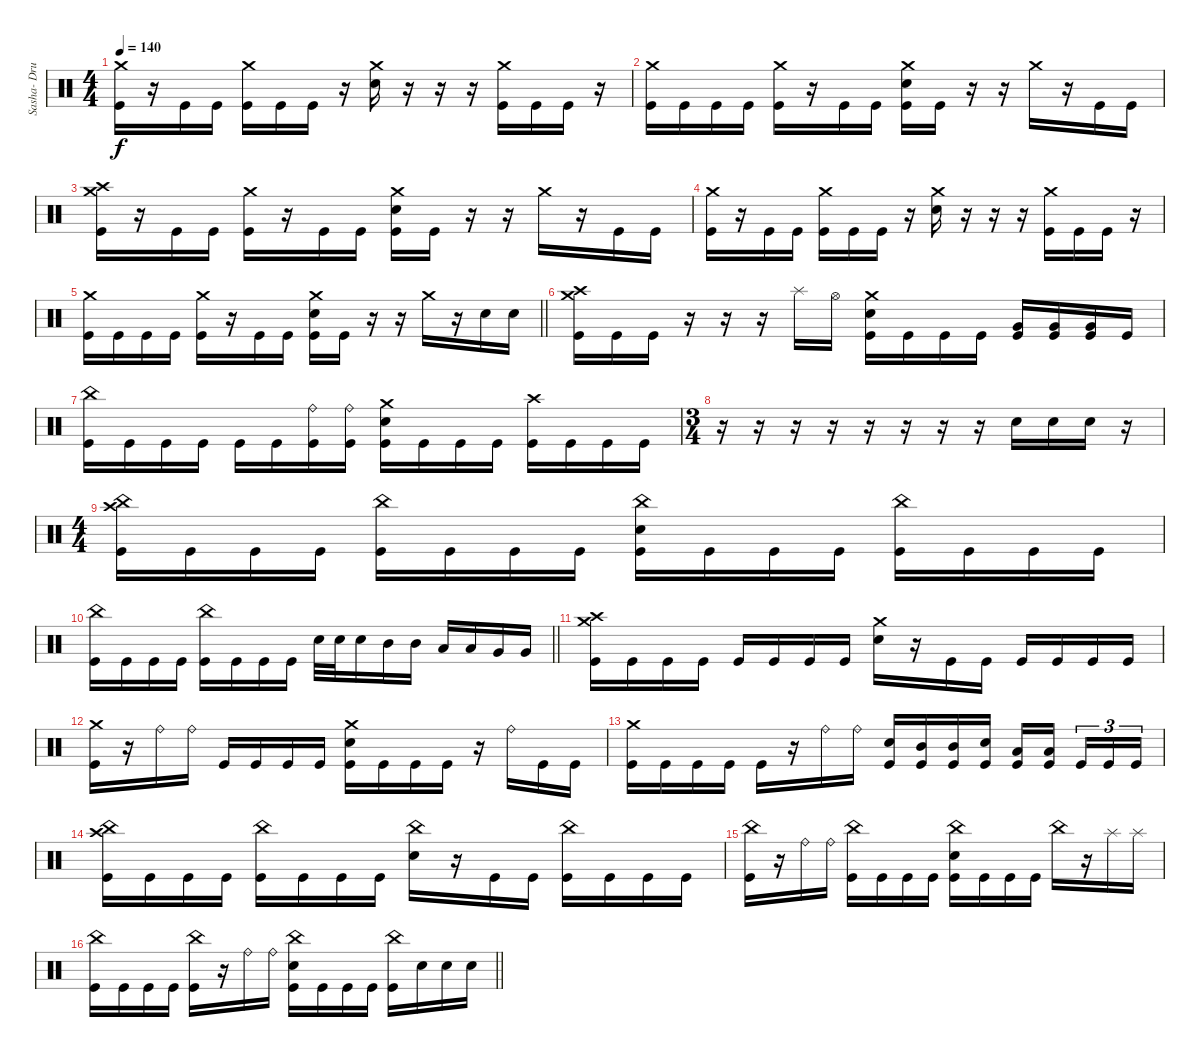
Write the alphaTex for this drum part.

\track ("Sasha- Drums" "Sasha- Dru") {instrument percussion}
\staff {score}
\articulation defaults
\ts (4 4)
\tempo 140
\clef neutral
\ks c
("Crash medium (hit)" "Kick (hit)").16{dy f} r.16 "Kick (hit)".16 "Kick (hit)".16 ("Kick (hit)" "Crash medium (hit)").16 "Kick (hit)".16 "Kick (hit)".16 r.16 ("Crash medium (hit)" "Snare (hit) 2").16 r.16 r.16 r.16 ("Kick (hit)" "Crash medium (hit)").16 "Kick (hit)".16 "Kick (hit)".16 r.16 |
("Kick (hit)" "Crash medium (hit)").16 "Kick (hit)".16 "Kick (hit)".16 "Kick (hit)".16 ("Kick (hit)" "Crash medium (hit)").16 r.16 "Kick (hit)".16 "Kick (hit)".16 ("Kick (hit)" "Crash medium (hit)" "Snare (hit) 2").16 "Kick (hit)".16 r.16 r.16 "Crash medium (hit)".16 r.16 "Kick (hit)".16 "Kick (hit)".16 |
("Kick (hit)" "Crash medium (hit)" "Crash high (hit)").16 r.16 "Kick (hit)".16 "Kick (hit)".16 ("Kick (hit)" "Crash medium (hit)").16 r.16 "Kick (hit)".16 "Kick (hit)".16 ("Kick (hit)" "Crash medium (hit)" "Snare (hit) 2").16 "Kick (hit)".16 r.16 r.16 "Crash medium (hit)".16 r.16 "Kick (hit)".16 "Kick (hit)".16 |
("Kick (hit)" "Crash medium (hit)").16 r.16 "Kick (hit)".16 "Kick (hit)".16 ("Kick (hit)" "Crash medium (hit)").16 "Kick (hit)".16 "Kick (hit)".16 r.16 ("Crash medium (hit)" "Snare (hit) 2").16 r.16 r.16 r.16 ("Kick (hit)" "Crash medium (hit)").16 "Kick (hit)".16 "Kick (hit)".16 r.16 |
\barLineRight lightlight
("Kick (hit)" "Crash medium (hit)").16 "Kick (hit)".16 "Kick (hit)".16 "Kick (hit)".16 ("Kick (hit)" "Crash medium (hit)").16 r.16 "Kick (hit)".16 "Kick (hit)".16 ("Kick (hit)" "Crash medium (hit)" "Snare (hit) 2").16 "Kick (hit)".16 r.16 r.16 "Crash medium (hit)".16 r.16 "Snare (hit) 2".16 "Snare (hit) 2".16 |
\section ("" "")
("Kick (hit)" "Crash high (hit)" "Crash medium (hit)").16 "Kick (hit)".16 "Kick (hit)".16 r.16 r.16 r.16 "Splash (hit)".16 "Hi-Hat (open)".16 ("Kick (hit)" "Crash medium (hit)" "Snare (hit) 2").16 "Kick (hit)".16 "Kick (hit)".16 "Kick (hit)".16 ("Very Low Tom (hit)" "Kick (hit)").16 ("Very Low Tom (hit)" "Kick (hit)").16 ("Very Low Tom (hit)" "Kick (hit)").16 "Kick (hit)".16 |
("Kick (hit)" "China (hit)").16 "Kick (hit)".16 "Kick (hit)".16 "Kick (hit)".16 "Kick (hit)".16 "Kick (hit)".16 ("Kick (hit)" "Ride (bell)").16 ("Kick (hit)" "Ride (bell)").16 ("Kick (hit)" "Crash medium (hit)" "Snare (hit) 2").16 "Kick (hit)".16 "Kick (hit)".16 "Kick (hit)".16 ("Kick (hit)" "Crash high (hit)").16 "Kick (hit)".16 "Kick (hit)".16 "Kick (hit)".16 |
\ts (3 4)
r.16 r.16 r.16 r.16 r.16 r.16 r.16 r.16 "Snare (hit) 2".16 "Snare (hit) 2".16 "Snare (hit) 2".16 r.16 |
\ts (4 4)
("Kick (hit)" "Crash high (hit)" "China (hit)").16 "Kick (hit)".16 "Kick (hit)".16 "Kick (hit)".16 ("Kick (hit)" "China (hit)").16 "Kick (hit)".16 "Kick (hit)".16 "Kick (hit)".16 ("Kick (hit)" "Snare (hit) 2" "China (hit)").16 "Kick (hit)".16 "Kick (hit)".16 "Kick (hit)".16 ("Kick (hit)" "China (hit)").16 "Kick (hit)".16 "Kick (hit)".16 "Kick (hit)".16 |
\barLineRight lightlight
("Kick (hit)" "China (hit)").16 "Kick (hit)".16 "Kick (hit)".16 "Kick (hit)".16 ("Kick (hit)" "China (hit)").16 "Kick (hit)".16 "Kick (hit)".16 "Kick (hit)".16 "Snare (hit) 2".32 "Snare (hit) 2".32 "Snare (hit) 2".16 "Mid Tom (hit)".16 "Mid Tom (hit)".16 "Low Tom (hit)".16 "Low Tom (hit)".16 "Very Low Tom (hit)".16 "Very Low Tom (hit)".16 |
\section ("" "")
("Kick (hit)" "Crash high (hit)" "Crash medium (hit)").16 "Kick (hit)".16 "Kick (hit)".16 "Kick (hit)".16 "Kick (hit)".16 "Kick (hit)".16 "Kick (hit)".16 "Kick (hit)".16 ("Snare (hit) 2" "Crash medium (hit)").16 r.16 "Kick (hit)".16 "Kick (hit)".16 "Kick (hit)".16 "Kick (hit)".16 "Kick (hit)".16 "Kick (hit)".16 |
("Kick (hit)" "Crash medium (hit)").16 r.16 "Ride (bell)".16 "Ride (bell)".16 "Kick (hit)".16 "Kick (hit)".16 "Kick (hit)".16 "Kick (hit)".16 ("Kick (hit)" "Snare (hit) 2" "Crash medium (hit)").16 "Kick (hit)".16 "Kick (hit)".16 "Kick (hit)".16 r.16 "Ride (bell)".16 "Kick (hit)".16 "Kick (hit)".16 |
("Kick (hit)" "Crash medium (hit)").16 "Kick (hit)".16 "Kick (hit)".16 "Kick (hit)".16 "Kick (hit)".16 r.16 "Ride (bell)".16 "Ride (bell)".16 ("Kick (hit)" "Snare (hit) 2").16 ("Kick (hit)" "Mid Tom (hit)").16 ("Kick (hit)" "Mid Tom (hit)").16 ("Kick (hit)" "Snare (hit) 2").16 ("Kick (hit)" "Low Tom (hit)").16 ("Kick (hit)" "Low Tom (hit)").16{beam splitsecondary} "Kick (hit)".16{tu (3 2)} "Kick (hit)".16{tu (3 2)} "Kick (hit)".16{tu (3 2)} |
("Kick (hit)" "Crash high (hit)" "China (hit)").16 "Kick (hit)".16 "Kick (hit)".16 "Kick (hit)".16 ("Kick (hit)" "China (hit)").16 "Kick (hit)".16 "Kick (hit)".16 "Kick (hit)".16 ("China (hit)" "Snare (hit) 2").16 r.16 "Kick (hit)".16 "Kick (hit)".16 ("Kick (hit)" "China (hit)").16 "Kick (hit)".16 "Kick (hit)".16 "Kick (hit)".16 |
("Kick (hit)" "China (hit)").16 r.16 "Ride (bell)".16 "Ride (bell)".16 ("Kick (hit)" "China (hit)").16 "Kick (hit)".16 "Kick (hit)".16 "Kick (hit)".16 ("Kick (hit)" "China (hit)" "Snare (hit) 2").16 "Kick (hit)".16 "Kick (hit)".16 "Kick (hit)".16 "China (hit)".16 r.16 "Splash (hit)".16 "Splash (hit)".16 |
\barLineRight lightlight
("Kick (hit)" "China (hit)").16 "Kick (hit)".16 "Kick (hit)".16 "Kick (hit)".16 ("Kick (hit)" "China (hit)").16 r.16 "Ride (bell)".16 "Ride (bell)".16 ("Kick (hit)" "China (hit)" "Snare (hit) 2").16 "Kick (hit)".16 "Kick (hit)".16 "Kick (hit)".16 ("Kick (hit)" "China (hit)").16 "Snare (hit) 2".16 "Snare (hit) 2".16 "Snare (hit) 2".16
